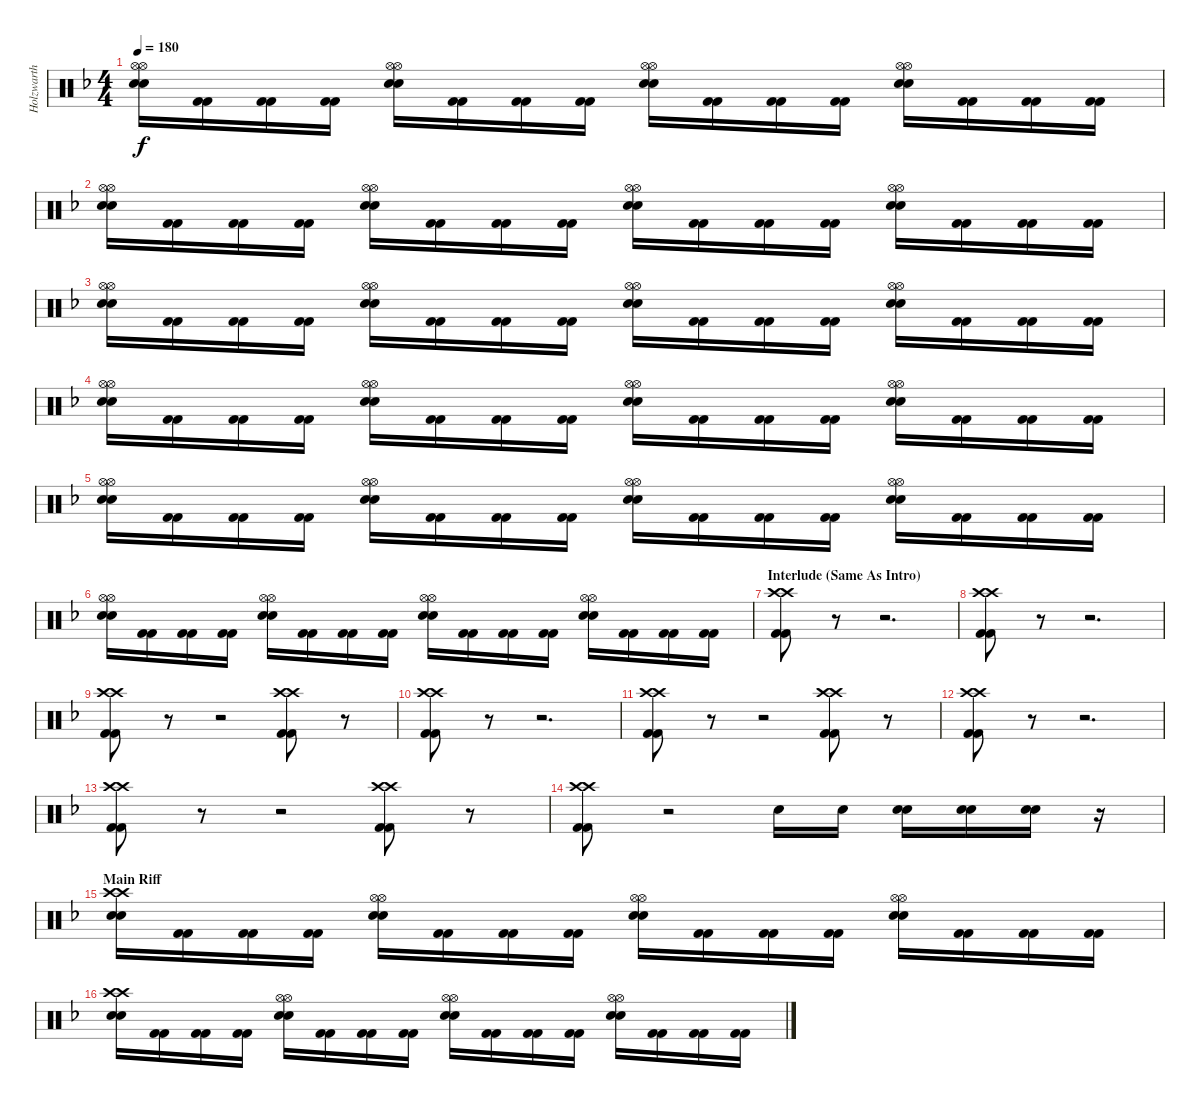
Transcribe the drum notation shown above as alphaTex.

\track ("Holzwarth" "Holzwarth") {instrument percussion}
\staff {score}
\articulation defaults
\ts (4 4)
\tempo 180
\clef neutral
\ks dminor
("Snare (hit) 2" "Snare (hit) 2" "Hi-Hat (open)" "Hi-Hat (open)").16{dy f} ("Kick (hit) 2" "Kick (hit) 2").16 ("Kick (hit) 2" "Kick (hit) 2").16 ("Kick (hit) 2" "Kick (hit) 2").16 ("Snare (hit) 2" "Snare (hit) 2" "Hi-Hat (open)" "Hi-Hat (open)").16 ("Kick (hit) 2" "Kick (hit) 2").16 ("Kick (hit) 2" "Kick (hit) 2").16 ("Kick (hit) 2" "Kick (hit) 2").16 ("Snare (hit) 2" "Snare (hit) 2" "Hi-Hat (open)" "Hi-Hat (open)").16 ("Kick (hit) 2" "Kick (hit) 2").16 ("Kick (hit) 2" "Kick (hit) 2").16 ("Kick (hit) 2" "Kick (hit) 2").16 ("Snare (hit) 2" "Snare (hit) 2" "Hi-Hat (open)" "Hi-Hat (open)").16 ("Kick (hit) 2" "Kick (hit) 2").16 ("Kick (hit) 2" "Kick (hit) 2").16 ("Kick (hit) 2" "Kick (hit) 2").16 |
("Snare (hit) 2" "Snare (hit) 2" "Hi-Hat (open)" "Hi-Hat (open)").16 ("Kick (hit) 2" "Kick (hit) 2").16 ("Kick (hit) 2" "Kick (hit) 2").16 ("Kick (hit) 2" "Kick (hit) 2").16 ("Snare (hit) 2" "Snare (hit) 2" "Hi-Hat (open)" "Hi-Hat (open)").16 ("Kick (hit) 2" "Kick (hit) 2").16 ("Kick (hit) 2" "Kick (hit) 2").16 ("Kick (hit) 2" "Kick (hit) 2").16 ("Snare (hit) 2" "Snare (hit) 2" "Hi-Hat (open)" "Hi-Hat (open)").16 ("Kick (hit) 2" "Kick (hit) 2").16 ("Kick (hit) 2" "Kick (hit) 2").16 ("Kick (hit) 2" "Kick (hit) 2").16 ("Snare (hit) 2" "Snare (hit) 2" "Hi-Hat (open)" "Hi-Hat (open)").16 ("Kick (hit) 2" "Kick (hit) 2").16 ("Kick (hit) 2" "Kick (hit) 2").16 ("Kick (hit) 2" "Kick (hit) 2").16 |
("Snare (hit) 2" "Snare (hit) 2" "Hi-Hat (open)" "Hi-Hat (open)").16 ("Kick (hit) 2" "Kick (hit) 2").16 ("Kick (hit) 2" "Kick (hit) 2").16 ("Kick (hit) 2" "Kick (hit) 2").16 ("Snare (hit) 2" "Snare (hit) 2" "Hi-Hat (open)" "Hi-Hat (open)").16 ("Kick (hit) 2" "Kick (hit) 2").16 ("Kick (hit) 2" "Kick (hit) 2").16 ("Kick (hit) 2" "Kick (hit) 2").16 ("Snare (hit) 2" "Snare (hit) 2" "Hi-Hat (open)" "Hi-Hat (open)").16 ("Kick (hit) 2" "Kick (hit) 2").16 ("Kick (hit) 2" "Kick (hit) 2").16 ("Kick (hit) 2" "Kick (hit) 2").16 ("Snare (hit) 2" "Snare (hit) 2" "Hi-Hat (open)" "Hi-Hat (open)").16 ("Kick (hit) 2" "Kick (hit) 2").16 ("Kick (hit) 2" "Kick (hit) 2").16 ("Kick (hit) 2" "Kick (hit) 2").16 |
("Snare (hit) 2" "Snare (hit) 2" "Hi-Hat (open)" "Hi-Hat (open)").16 ("Kick (hit) 2" "Kick (hit) 2").16 ("Kick (hit) 2" "Kick (hit) 2").16 ("Kick (hit) 2" "Kick (hit) 2").16 ("Snare (hit) 2" "Snare (hit) 2" "Hi-Hat (open)" "Hi-Hat (open)").16 ("Kick (hit) 2" "Kick (hit) 2").16 ("Kick (hit) 2" "Kick (hit) 2").16 ("Kick (hit) 2" "Kick (hit) 2").16 ("Snare (hit) 2" "Snare (hit) 2" "Hi-Hat (open)" "Hi-Hat (open)").16 ("Kick (hit) 2" "Kick (hit) 2").16 ("Kick (hit) 2" "Kick (hit) 2").16 ("Kick (hit) 2" "Kick (hit) 2").16 ("Snare (hit) 2" "Snare (hit) 2" "Hi-Hat (open)" "Hi-Hat (open)").16 ("Kick (hit) 2" "Kick (hit) 2").16 ("Kick (hit) 2" "Kick (hit) 2").16 ("Kick (hit) 2" "Kick (hit) 2").16 |
("Snare (hit) 2" "Snare (hit) 2" "Hi-Hat (open)" "Hi-Hat (open)").16 ("Kick (hit) 2" "Kick (hit) 2").16 ("Kick (hit) 2" "Kick (hit) 2").16 ("Kick (hit) 2" "Kick (hit) 2").16 ("Snare (hit) 2" "Snare (hit) 2" "Hi-Hat (open)" "Hi-Hat (open)").16 ("Kick (hit) 2" "Kick (hit) 2").16 ("Kick (hit) 2" "Kick (hit) 2").16 ("Kick (hit) 2" "Kick (hit) 2").16 ("Snare (hit) 2" "Snare (hit) 2" "Hi-Hat (open)" "Hi-Hat (open)").16 ("Kick (hit) 2" "Kick (hit) 2").16 ("Kick (hit) 2" "Kick (hit) 2").16 ("Kick (hit) 2" "Kick (hit) 2").16 ("Snare (hit) 2" "Snare (hit) 2" "Hi-Hat (open)" "Hi-Hat (open)").16 ("Kick (hit) 2" "Kick (hit) 2").16 ("Kick (hit) 2" "Kick (hit) 2").16 ("Kick (hit) 2" "Kick (hit) 2").16 |
("Snare (hit) 2" "Snare (hit) 2" "Hi-Hat (open)" "Hi-Hat (open)").16 ("Kick (hit) 2" "Kick (hit) 2").16 ("Kick (hit) 2" "Kick (hit) 2").16 ("Kick (hit) 2" "Kick (hit) 2").16 ("Snare (hit) 2" "Snare (hit) 2" "Hi-Hat (open)" "Hi-Hat (open)").16 ("Kick (hit) 2" "Kick (hit) 2").16 ("Kick (hit) 2" "Kick (hit) 2").16 ("Kick (hit) 2" "Kick (hit) 2").16 ("Snare (hit) 2" "Snare (hit) 2" "Hi-Hat (open)" "Hi-Hat (open)").16 ("Kick (hit) 2" "Kick (hit) 2").16 ("Kick (hit) 2" "Kick (hit) 2").16 ("Kick (hit) 2" "Kick (hit) 2").16 ("Snare (hit) 2" "Snare (hit) 2" "Hi-Hat (open)" "Hi-Hat (open)").16 ("Kick (hit) 2" "Kick (hit) 2").16 ("Kick (hit) 2" "Kick (hit) 2").16 ("Kick (hit) 2" "Kick (hit) 2").16 |
\section ("" "Interlude (Same As Intro)")
("Kick (hit) 2" "Kick (hit) 2" "Crash high (hit)" "Crash high (hit)").8 r.8 r.2{d} |
("Kick (hit) 2" "Kick (hit) 2" "Crash high (hit)" "Crash high (hit)").8 r.8 r.2{d} |
("Kick (hit) 2" "Kick (hit) 2" "Crash high (hit)" "Crash high (hit)").8 r.8 r.2 ("Kick (hit) 2" "Kick (hit) 2" "Crash high (hit)" "Crash high (hit)").8 r.8 |
("Kick (hit) 2" "Kick (hit) 2" "Crash high (hit)" "Crash high (hit)").8 r.8 r.2{d} |
("Kick (hit) 2" "Kick (hit) 2" "Crash high (hit)" "Crash high (hit)").8 r.8 r.2 ("Kick (hit) 2" "Kick (hit) 2" "Crash high (hit)" "Crash high (hit)").8 r.8 |
("Kick (hit) 2" "Kick (hit) 2" "Crash high (hit)" "Crash high (hit)").8 r.8 r.2{d} |
("Kick (hit) 2" "Kick (hit) 2" "Crash high (hit)" "Crash high (hit)").8 r.8 r.2 ("Kick (hit) 2" "Kick (hit) 2" "Crash high (hit)" "Crash high (hit)").8 r.8 |
("Kick (hit) 2" "Kick (hit) 2" "Crash high (hit)" "Crash high (hit)").8 r.2 "Snare (hit) 2".16 "Snare (hit) 2".16 ("Snare (hit) 2" "Snare (hit) 2").16 ("Snare (hit) 2" "Snare (hit) 2").16 ("Snare (hit) 2" "Snare (hit) 2").16 r.16 |
\section ("" "Main Riff")
("Snare (hit) 2" "Snare (hit) 2" "Crash high (hit)" "Crash high (hit)").16 ("Kick (hit) 2" "Kick (hit) 2").16 ("Kick (hit) 2" "Kick (hit) 2").16 ("Kick (hit) 2" "Kick (hit) 2").16 ("Snare (hit) 2" "Snare (hit) 2" "Hi-Hat (open)" "Hi-Hat (open)").16 ("Kick (hit) 2" "Kick (hit) 2").16 ("Kick (hit) 2" "Kick (hit) 2").16 ("Kick (hit) 2" "Kick (hit) 2").16 ("Snare (hit) 2" "Snare (hit) 2" "Hi-Hat (open)" "Hi-Hat (open)").16 ("Kick (hit) 2" "Kick (hit) 2").16 ("Kick (hit) 2" "Kick (hit) 2").16 ("Kick (hit) 2" "Kick (hit) 2").16 ("Snare (hit) 2" "Snare (hit) 2" "Hi-Hat (open)" "Hi-Hat (open)").16 ("Kick (hit) 2" "Kick (hit) 2").16 ("Kick (hit) 2" "Kick (hit) 2").16 ("Kick (hit) 2" "Kick (hit) 2").16 |
("Snare (hit) 2" "Snare (hit) 2" "Crash high (hit)" "Crash high (hit)").16 ("Kick (hit) 2" "Kick (hit) 2").16 ("Kick (hit) 2" "Kick (hit) 2").16 ("Kick (hit) 2" "Kick (hit) 2").16 ("Snare (hit) 2" "Snare (hit) 2" "Hi-Hat (open)" "Hi-Hat (open)").16 ("Kick (hit) 2" "Kick (hit) 2").16 ("Kick (hit) 2" "Kick (hit) 2").16 ("Kick (hit) 2" "Kick (hit) 2").16 ("Snare (hit) 2" "Snare (hit) 2" "Hi-Hat (open)" "Hi-Hat (open)").16 ("Kick (hit) 2" "Kick (hit) 2").16 ("Kick (hit) 2" "Kick (hit) 2").16 ("Kick (hit) 2" "Kick (hit) 2").16 ("Snare (hit) 2" "Snare (hit) 2" "Hi-Hat (open)" "Hi-Hat (open)").16 ("Kick (hit) 2" "Kick (hit) 2").16 ("Kick (hit) 2" "Kick (hit) 2").16 ("Kick (hit) 2" "Kick (hit) 2").16
